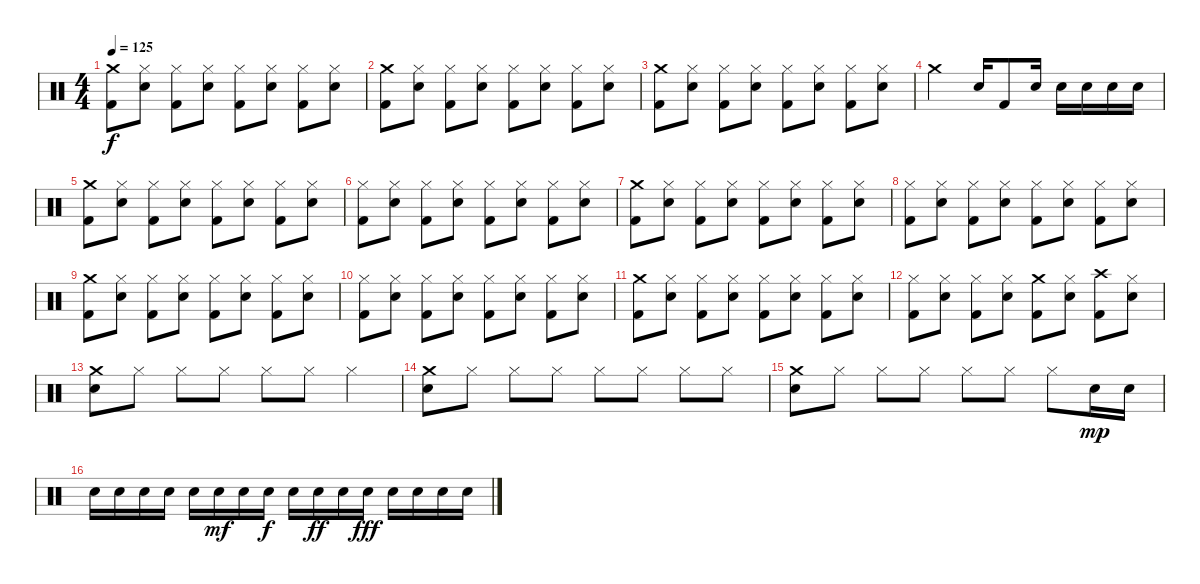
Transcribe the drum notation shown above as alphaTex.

\track (" " " ") {instrument percussion}
\staff {score}
\articulation defaults
\ts (4 4)
\tempo 125
\clef neutral
\ks c
("Crash medium (hit)" "Kick (hit) 2").8{dy f} ("Hi-Hat (closed)" "Snare (hit) 2").8 ("Hi-Hat (closed)" "Kick (hit) 2").8 ("Hi-Hat (closed)" "Snare (hit) 2").8 ("Hi-Hat (closed)" "Kick (hit) 2").8 ("Hi-Hat (closed)" "Snare (hit) 2").8 ("Hi-Hat (closed)" "Kick (hit) 2").8 ("Hi-Hat (closed)" "Snare (hit) 2").8 |
("Crash medium (hit)" "Kick (hit) 2").8 ("Hi-Hat (closed)" "Snare (hit) 2").8 ("Hi-Hat (closed)" "Kick (hit) 2").8 ("Hi-Hat (closed)" "Snare (hit) 2").8 ("Hi-Hat (closed)" "Kick (hit) 2").8 ("Hi-Hat (closed)" "Snare (hit) 2").8 ("Hi-Hat (closed)" "Kick (hit) 2").8 ("Hi-Hat (closed)" "Snare (hit) 2").8 |
("Crash medium (hit)" "Kick (hit) 2").8 ("Hi-Hat (closed)" "Snare (hit) 2").8 ("Hi-Hat (closed)" "Kick (hit) 2").8 ("Hi-Hat (closed)" "Snare (hit) 2").8 ("Hi-Hat (closed)" "Kick (hit) 2").8 ("Hi-Hat (closed)" "Snare (hit) 2").8 ("Hi-Hat (closed)" "Kick (hit) 2").8 ("Hi-Hat (closed)" "Snare (hit) 2").8 |
"Crash medium (hit)".2 "Snare (hit) 2".16 "Kick (hit) 2".8 "Snare (hit) 2".16 "Snare (hit) 2".16 "Snare (hit) 2".16 "Snare (hit) 2".16 "Snare (hit) 2".16 |
("Crash medium (hit)" "Kick (hit) 2").8 ("Hi-Hat (closed)" "Snare (hit) 2").8 ("Hi-Hat (closed)" "Kick (hit) 2").8 ("Hi-Hat (closed)" "Snare (hit) 2").8 ("Hi-Hat (closed)" "Kick (hit) 2").8 ("Hi-Hat (closed)" "Snare (hit) 2").8 ("Hi-Hat (closed)" "Kick (hit) 2").8 ("Hi-Hat (closed)" "Snare (hit) 2").8 |
("Hi-Hat (closed)" "Kick (hit) 2").8 ("Hi-Hat (closed)" "Snare (hit) 2").8 ("Hi-Hat (closed)" "Kick (hit) 2").8 ("Hi-Hat (closed)" "Snare (hit) 2").8 ("Hi-Hat (closed)" "Kick (hit) 2").8 ("Hi-Hat (closed)" "Snare (hit) 2").8 ("Hi-Hat (closed)" "Kick (hit) 2").8 ("Hi-Hat (closed)" "Snare (hit) 2").8 |
("Crash medium (hit)" "Kick (hit) 2").8 ("Hi-Hat (closed)" "Snare (hit) 2").8 ("Hi-Hat (closed)" "Kick (hit) 2").8 ("Hi-Hat (closed)" "Snare (hit) 2").8 ("Hi-Hat (closed)" "Kick (hit) 2").8 ("Hi-Hat (closed)" "Snare (hit) 2").8 ("Hi-Hat (closed)" "Kick (hit) 2").8 ("Hi-Hat (closed)" "Snare (hit) 2").8 |
("Hi-Hat (closed)" "Kick (hit) 2").8 ("Hi-Hat (closed)" "Snare (hit) 2").8 ("Hi-Hat (closed)" "Kick (hit) 2").8 ("Hi-Hat (closed)" "Snare (hit) 2").8 ("Hi-Hat (closed)" "Kick (hit) 2").8 ("Hi-Hat (closed)" "Snare (hit) 2").8 ("Hi-Hat (closed)" "Kick (hit) 2").8 ("Hi-Hat (closed)" "Snare (hit) 2").8 |
("Crash medium (hit)" "Kick (hit) 2").8 ("Hi-Hat (closed)" "Snare (hit) 2").8 ("Hi-Hat (closed)" "Kick (hit) 2").8 ("Hi-Hat (closed)" "Snare (hit) 2").8 ("Hi-Hat (closed)" "Kick (hit) 2").8 ("Hi-Hat (closed)" "Snare (hit) 2").8 ("Hi-Hat (closed)" "Kick (hit) 2").8 ("Hi-Hat (closed)" "Snare (hit) 2").8 |
("Hi-Hat (closed)" "Kick (hit) 2").8 ("Hi-Hat (closed)" "Snare (hit) 2").8 ("Hi-Hat (closed)" "Kick (hit) 2").8 ("Hi-Hat (closed)" "Snare (hit) 2").8 ("Hi-Hat (closed)" "Kick (hit) 2").8 ("Hi-Hat (closed)" "Snare (hit) 2").8 ("Hi-Hat (closed)" "Kick (hit) 2").8 ("Hi-Hat (closed)" "Snare (hit) 2").8 |
("Crash medium (hit)" "Kick (hit) 2").8 ("Hi-Hat (closed)" "Snare (hit) 2").8 ("Hi-Hat (closed)" "Kick (hit) 2").8 ("Hi-Hat (closed)" "Snare (hit) 2").8 ("Hi-Hat (closed)" "Kick (hit) 2").8 ("Hi-Hat (closed)" "Snare (hit) 2").8 ("Hi-Hat (closed)" "Kick (hit) 2").8 ("Hi-Hat (closed)" "Snare (hit) 2").8 |
("Hi-Hat (closed)" "Kick (hit) 2").8 ("Hi-Hat (closed)" "Snare (hit) 2").8 ("Hi-Hat (closed)" "Kick (hit) 2").8 ("Hi-Hat (closed)" "Snare (hit) 2").8 ("Crash medium (hit)" "Kick (hit) 2").8 ("Hi-Hat (closed)" "Snare (hit) 2").8 ("Crash high (hit)" "Kick (hit) 2").8 ("Hi-Hat (closed)" "Snare (hit) 2").8 |
("Crash medium (hit)" "Snare (hit) 2").8 "Hi-Hat (closed)".8 "Hi-Hat (closed)".8 "Hi-Hat (closed)".8 "Hi-Hat (closed)".8 "Hi-Hat (closed)".8 "Hi-Hat (closed)".4 |
("Crash medium (hit)" "Snare (hit) 2").8 "Hi-Hat (closed)".8 "Hi-Hat (closed)".8 "Hi-Hat (closed)".8 "Hi-Hat (closed)".8 "Hi-Hat (closed)".8 "Hi-Hat (closed)".8 "Hi-Hat (closed)".8 |
("Crash medium (hit)" "Snare (hit) 2").8 "Hi-Hat (closed)".8 "Hi-Hat (closed)".8 "Hi-Hat (closed)".8 "Hi-Hat (closed)".8 "Hi-Hat (closed)".8 "Hi-Hat (closed)".8 "Snare (hit) 2".16{dy mp} "Snare (hit) 2".16 |
"Snare (hit) 2".16 "Snare (hit) 2".16 "Snare (hit) 2".16 "Snare (hit) 2".16 "Snare (hit) 2".16 "Snare (hit) 2".16{dy mf} "Snare (hit) 2".16 "Snare (hit) 2".16{dy f} "Snare (hit) 2".16 "Snare (hit) 2".16{dy ff} "Snare (hit) 2".16 "Snare (hit) 2".16{dy fff} "Snare (hit) 2".16 "Snare (hit) 2".16 "Snare (hit) 2".16 "Snare (hit) 2".16
